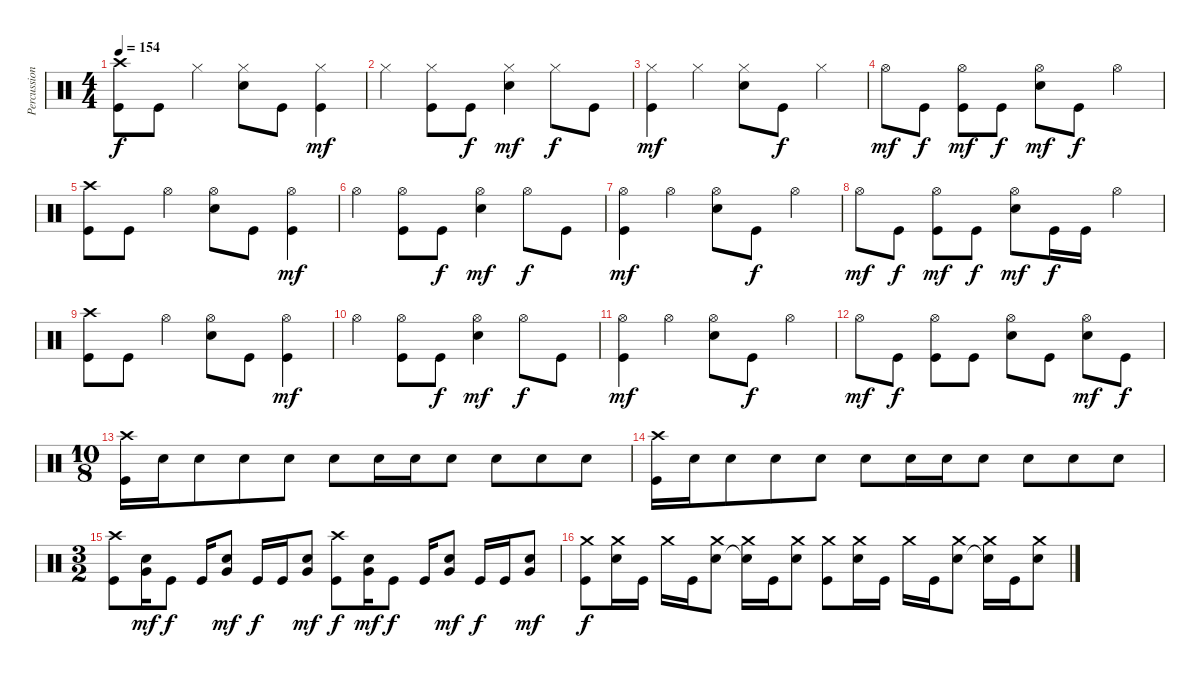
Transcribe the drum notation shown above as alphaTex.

\track ("Percussion" "Percussion") {instrument percussion}
\staff {score}
\articulation defaults
\ts (4 4)
\tempo 154
\clef neutral
\ks c
("Crash high (hit)" "Kick (hit)").8{dy f} "Kick (hit)".8 "Hi-Hat (closed)".4 ("Hi-Hat (closed)" "Electric Snare (hit)").8 "Kick (hit)".8 ("Hi-Hat (closed)" "Kick (hit)").4{dy mf} |
"Hi-Hat (closed)".4 ("Hi-Hat (closed)" "Kick (hit)").8 "Kick (hit)".8{dy f} ("Hi-Hat (closed)" "Electric Snare (hit)").4{dy mf} "Hi-Hat (closed)".8{dy f} "Kick (hit)".8 |
("Hi-Hat (closed)" "Kick (hit)").4{dy mf} "Hi-Hat (closed)".4 ("Hi-Hat (closed)" "Electric Snare (hit)").8 "Kick (hit)".8{dy f} "Hi-Hat (closed)".4 |
"Hi-Hat (open)".8{dy mf} "Kick (hit)".8{dy f} ("Hi-Hat (open)" "Kick (hit)").8{dy mf} "Kick (hit)".8{dy f} ("Hi-Hat (open)" "Electric Snare (hit)").8{dy mf} "Kick (hit)".8{dy f} "Hi-Hat (open)".4 |
("Crash high (hit)" "Kick (hit)").8 "Kick (hit)".8 "Hi-Hat (open)".4 ("Hi-Hat (open)" "Electric Snare (hit)").8 "Kick (hit)".8 ("Hi-Hat (open)" "Kick (hit)").4{dy mf} |
"Hi-Hat (open)".4 ("Hi-Hat (open)" "Kick (hit)").8 "Kick (hit)".8{dy f} ("Hi-Hat (open)" "Electric Snare (hit)").4{dy mf} "Hi-Hat (open)".8{dy f} "Kick (hit)".8 |
("Hi-Hat (open)" "Kick (hit)").4{dy mf} "Hi-Hat (open)".4 ("Hi-Hat (open)" "Electric Snare (hit)").8 "Kick (hit)".8{dy f} "Hi-Hat (open)".4 |
"Hi-Hat (open)".8{dy mf} "Kick (hit)".8{dy f} ("Hi-Hat (open)" "Kick (hit)").8{dy mf} "Kick (hit)".8{dy f} ("Hi-Hat (open)" "Electric Snare (hit)").8{dy mf} "Kick (hit)".16{dy f} "Kick (hit)".16 "Hi-Hat (open)".4 |
("Crash high (hit)" "Kick (hit)").8 "Kick (hit)".8 "Hi-Hat (open)".4 ("Hi-Hat (open)" "Electric Snare (hit)").8 "Kick (hit)".8 ("Hi-Hat (open)" "Kick (hit)").4{dy mf} |
"Hi-Hat (open)".4 ("Hi-Hat (open)" "Kick (hit)").8 "Kick (hit)".8{dy f} ("Hi-Hat (open)" "Electric Snare (hit)").4{dy mf} "Hi-Hat (open)".8{dy f} "Kick (hit)".8 |
("Hi-Hat (open)" "Kick (hit)").4{dy mf} "Hi-Hat (open)".4 ("Hi-Hat (open)" "Electric Snare (hit)").8 "Kick (hit)".8{dy f} "Hi-Hat (open)".4 |
"Hi-Hat (open)".8{dy mf} "Kick (hit)".8{dy f} ("Hi-Hat (open)" "Kick (hit)").8 "Kick (hit)".8 ("Hi-Hat (open)" "Electric Snare (hit)").8 "Kick (hit)".8 ("Hi-Hat (open)" "Electric Snare (hit)").8{dy mf} "Kick (hit)".8{dy f} |
\ts (10 8)
("Crash high (hit)" "Kick (hit)").16 "Electric Snare (hit)".16 "Electric Snare (hit)".8 "Electric Snare (hit)".8 "Electric Snare (hit)".8 "Electric Snare (hit)".8 "Electric Snare (hit)".16 "Electric Snare (hit)".16 "Electric Snare (hit)".8 "Electric Snare (hit)".8 "Electric Snare (hit)".8 "Electric Snare (hit)".8 |
("Crash high (hit)" "Kick (hit)").16 "Electric Snare (hit)".16 "Electric Snare (hit)".8 "Electric Snare (hit)".8 "Electric Snare (hit)".8 "Electric Snare (hit)".8 "Electric Snare (hit)".16 "Electric Snare (hit)".16 "Electric Snare (hit)".8 "Electric Snare (hit)".8 "Electric Snare (hit)".8 "Electric Snare (hit)".8 |
\ts (3 2)
("Crash high (hit)" "Kick (hit)").8 ("Very Low Tom (hit)" "Electric Snare (hit)").16{dy mf} "Kick (hit)".8{dy f} "Kick (hit)".16 ("Very Low Tom (hit)" "Electric Snare (hit)").8{dy mf} "Kick (hit)".16{dy f} "Kick (hit)".16 ("Very Low Tom (hit)" "Electric Snare (hit)").8{dy mf} ("Crash high (hit)" "Kick (hit)").8{dy f} ("Very Low Tom (hit)" "Electric Snare (hit)").16{dy mf} "Kick (hit)".8{dy f} "Kick (hit)".16 ("Very Low Tom (hit)" "Electric Snare (hit)").8{dy mf} "Kick (hit)".16{dy f} "Kick (hit)".16 ("Very Low Tom (hit)" "Electric Snare (hit)").8{dy mf} |
("Crash medium (hit)" "Kick (hit)").8{dy f} ("Crash medium (hit)" "Electric Snare (hit)").16 "Kick (hit)".16 "Crash medium (hit)".16 "Kick (hit)".16 ("Crash medium (hit)" "Electric Snare (hit)").8 ("Crash medium (hit)" "Snare (hit)"{t}).16 "Kick (hit)".16 ("Crash medium (hit)" "Electric Snare (hit)").8 ("Crash medium (hit)" "Kick (hit)").8 ("Crash medium (hit)" "Electric Snare (hit)").16 "Kick (hit)".16 "Crash medium (hit)".16 "Kick (hit)".16 ("Crash medium (hit)" "Electric Snare (hit)").8 ("Crash medium (hit)" "Snare (hit)"{t}).16 "Kick (hit)".16 ("Crash medium (hit)" "Electric Snare (hit)").8
